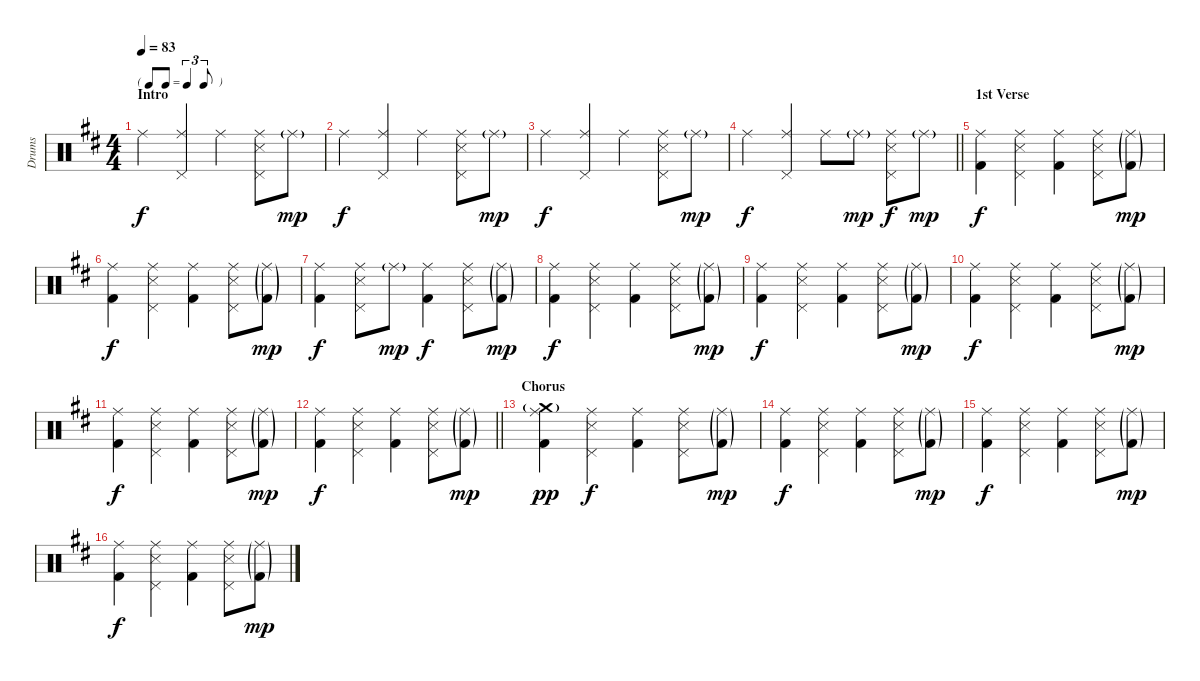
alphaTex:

\track ("Drums" "Drums") {instrument percussion}
\staff {score}
\articulation defaults
\ts (4 4)
\tf triplet8th
\section ("" "Intro")
\tempo 83
\clef neutral
\ks d "Ride (middle)".4{dy f}
("Ride (middle)" "Pedal Hi-Hat (hit)").4 "Ride (middle)".4 ("Ride (middle)" "Snare (side stick) 3" "Pedal Hi-Hat (hit)").8 "Ride (middle)"{g}.8{dy mp} |
"Ride (middle)".4{dy f} ("Ride (middle)" "Pedal Hi-Hat (hit)").4 "Ride (middle)".4 ("Ride (middle)" "Snare (side stick) 3" "Pedal Hi-Hat (hit)").8 "Ride (middle)"{g}.8{dy mp} |
"Ride (middle)".4{dy f} ("Ride (middle)" "Pedal Hi-Hat (hit)").4 "Ride (middle)".4 ("Ride (middle)" "Snare (side stick) 3" "Pedal Hi-Hat (hit)").8 "Ride (middle)"{g}.8{dy mp} |
\barLineRight lightlight "Ride (middle)".4{dy f}
("Ride (middle)" "Pedal Hi-Hat (hit)").4 "Ride (middle)".8 "Ride (middle)"{g}.8{dy mp} ("Ride (middle)" "Snare (side stick) 3" "Pedal Hi-Hat (hit)").8{dy f} "Ride (middle)"{g}.8{dy mp} |
\section ("" "1st Verse")
("Ride (middle)" "Kick (hit) 2").4{dy f} ("Ride (middle)" "Snare (side stick) 3" "Pedal Hi-Hat (hit)").4 ("Ride (middle)" "Kick (hit) 2").4 ("Ride (middle)" "Snare (side stick) 3" "Pedal Hi-Hat (hit)").8 ("Ride (middle)"{g} "Kick (hit) 2"{g}).8{dy mp} |
("Ride (middle)" "Kick (hit) 2").4{dy f} ("Ride (middle)" "Snare (side stick) 3" "Pedal Hi-Hat (hit)").4 ("Ride (middle)" "Kick (hit) 2").4 ("Ride (middle)" "Snare (side stick) 3" "Pedal Hi-Hat (hit)").8 ("Ride (middle)"{g} "Kick (hit) 2"{g}).8{dy mp} |
("Ride (middle)" "Kick (hit) 2").4{dy f} ("Ride (middle)" "Snare (side stick) 3" "Pedal Hi-Hat (hit)").8 "Ride (middle)"{g}.8{dy mp} ("Ride (middle)" "Kick (hit) 2").4{dy f} ("Ride (middle)" "Snare (side stick) 3" "Pedal Hi-Hat (hit)").8 ("Ride (middle)"{g} "Kick (hit) 2"{g}).8{dy mp} |
("Ride (middle)" "Kick (hit) 2").4{dy f} ("Ride (middle)" "Snare (side stick) 3" "Pedal Hi-Hat (hit)").4 ("Ride (middle)" "Kick (hit) 2").4 ("Ride (middle)" "Snare (side stick) 3" "Pedal Hi-Hat (hit)").8 ("Ride (middle)"{g} "Kick (hit) 2"{g}).8{dy mp} |
("Ride (middle)" "Kick (hit) 2").4{dy f} ("Ride (middle)" "Snare (side stick) 3" "Pedal Hi-Hat (hit)").4 ("Ride (middle)" "Kick (hit) 2").4 ("Ride (middle)" "Snare (side stick) 3" "Pedal Hi-Hat (hit)").8 ("Ride (middle)"{g} "Kick (hit) 2"{g}).8{dy mp} |
("Ride (middle)" "Kick (hit) 2").4{dy f} ("Ride (middle)" "Snare (side stick) 3" "Pedal Hi-Hat (hit)").4 ("Ride (middle)" "Kick (hit) 2").4 ("Ride (middle)" "Snare (side stick) 3" "Pedal Hi-Hat (hit)").8 ("Ride (middle)"{g} "Kick (hit) 2"{g}).8{dy mp} |
("Ride (middle)" "Kick (hit) 2").4{dy f} ("Ride (middle)" "Snare (side stick) 3" "Pedal Hi-Hat (hit)").4 ("Ride (middle)" "Kick (hit) 2").4 ("Ride (middle)" "Snare (side stick) 3" "Pedal Hi-Hat (hit)").8 ("Ride (middle)"{g} "Kick (hit) 2"{g}).8{dy mp} |
\barLineRight lightlight
("Ride (middle)" "Kick (hit) 2").4{dy f} ("Ride (middle)" "Snare (side stick) 3" "Pedal Hi-Hat (hit)").4 ("Ride (middle)" "Kick (hit) 2").4 ("Ride (middle)" "Snare (side stick) 3" "Pedal Hi-Hat (hit)").8 ("Ride (middle)"{g} "Kick (hit) 2"{g}).8{dy mp} |
\section ("" "Chorus")
("Ride (middle)" "Crash medium (hit)"{g} "Kick (hit) 2").4{dy pp} ("Ride (middle)" "Snare (side stick) 3" "Pedal Hi-Hat (hit)").4{dy f} ("Ride (middle)" "Kick (hit) 2").4 ("Ride (middle)" "Snare (side stick) 3" "Pedal Hi-Hat (hit)").8 ("Ride (middle)"{g} "Kick (hit) 2"{g}).8{dy mp} |
("Ride (middle)" "Kick (hit) 2").4{dy f} ("Ride (middle)" "Snare (side stick) 3" "Pedal Hi-Hat (hit)").4 ("Ride (middle)" "Kick (hit) 2").4 ("Ride (middle)" "Snare (side stick) 3" "Pedal Hi-Hat (hit)").8 ("Ride (middle)"{g} "Kick (hit) 2"{g}).8{dy mp} |
("Ride (middle)" "Kick (hit) 2").4{dy f} ("Ride (middle)" "Snare (side stick) 3" "Pedal Hi-Hat (hit)").4 ("Ride (middle)" "Kick (hit) 2").4 ("Ride (middle)" "Snare (side stick) 3" "Pedal Hi-Hat (hit)").8 ("Ride (middle)"{g} "Kick (hit) 2"{g}).8{dy mp} |
("Ride (middle)" "Kick (hit) 2").4{dy f} ("Ride (middle)" "Snare (side stick) 3" "Pedal Hi-Hat (hit)").4 ("Ride (middle)" "Kick (hit) 2").4 ("Ride (middle)" "Snare (side stick) 3" "Pedal Hi-Hat (hit)").8 ("Ride (middle)"{g} "Kick (hit) 2"{g}).8{dy mp}
